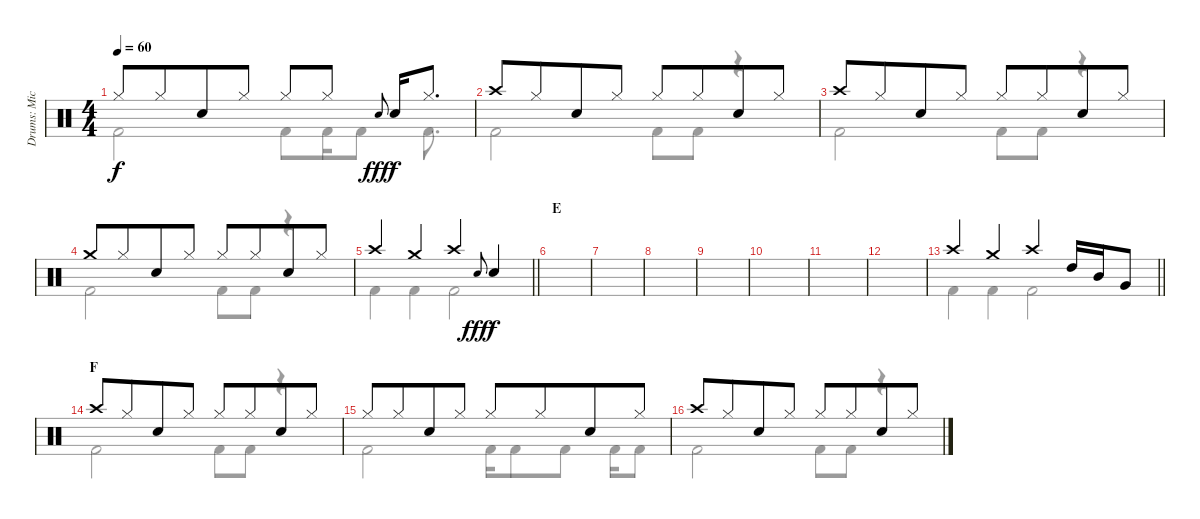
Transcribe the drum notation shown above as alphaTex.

\track ("Drums: Mick" "Drums: Mic") {instrument percussion}
\staff {score}
\articulation defaults
\voice
\ts (4 4)
\tempo 60
\clef neutral
\ks c "Hi-Hat (closed)".8{dy f} "Hi-Hat (closed)".8{beam merge} "Snare (hit) 2".8 "Hi-Hat (closed)".8 "Hi-Hat (closed)".8 "Hi-Hat (closed)".8 "Electric Snare (hit)".8{gr onbeat dy fff beam merge} "Snare (hit) 2".16{dy f} "Hi-Hat (closed)".8{d}
|
"Crash high (hit)".8 "Hi-Hat (closed)".8{beam merge} "Snare (hit) 2".8 "Hi-Hat (closed)".8 "Hi-Hat (closed)".8 "Hi-Hat (closed)".8{beam merge} "Snare (hit) 2".8 "Hi-Hat (closed)".8 |
"Crash high (hit)".8 "Hi-Hat (closed)".8{beam merge} "Snare (hit) 2".8 "Hi-Hat (closed)".8 "Hi-Hat (closed)".8 "Hi-Hat (closed)".8{beam merge} "Snare (hit) 2".8 "Hi-Hat (closed)".8 |
"Crash medium (hit)".8 "Hi-Hat (closed)".8{beam merge} "Snare (hit) 2".8 "Hi-Hat (closed)".8 "Hi-Hat (closed)".8 "Hi-Hat (closed)".8{beam merge} "Snare (hit) 2".8 "Hi-Hat (closed)".8 |
\barLineRight lightlight "Crash high (hit)".4 "Crash medium (hit)".4{beam merge} "Crash high (hit)".4 "Electric Snare (hit)".8{gr onbeat dy fff beam merge} "Snare (hit) 2".4{dy f}
|
\section ("" "E")
|
|
|
|
|
|
|
\barLineRight lightlight "Crash high (hit)".4 "Crash medium (hit)".4 "Crash high (hit)".4 "High Tom (hit)".16 "Mid Tom (hit)".16 "Very Low Tom (hit)".8
|
\section ("" "F")
"Crash high (hit)".8 "Hi-Hat (closed)".8{beam merge} "Snare (hit) 2".8 "Hi-Hat (closed)".8 "Hi-Hat (closed)".8 "Hi-Hat (closed)".8{beam merge} "Snare (hit) 2".8 "Hi-Hat (closed)".8 |
"Hi-Hat (closed)".8 "Hi-Hat (closed)".8{beam merge} "Snare (hit) 2".8 "Hi-Hat (closed)".8 "Hi-Hat (closed)".8 "Hi-Hat (closed)".8{beam merge} "Snare (hit) 2".8 "Hi-Hat (closed)".8 |
"Crash high (hit)".8 "Hi-Hat (closed)".8{beam merge} "Snare (hit) 2".8 "Hi-Hat (closed)".8 "Hi-Hat (closed)".8 "Hi-Hat (closed)".8{beam merge} "Snare (hit) 2".8 "Hi-Hat (closed)".8
\voice
\clef neutral
\ottava regular
\simile none
\ks c "Kick (hit) 2".2{dy f} "Kick (hit) 2".8 "Kick (hit) 2".16 "Kick (hit) 2".8 "Kick (hit) 2".8{d}
|
"Kick (hit) 2".2 "Kick (hit) 2".8 "Kick (hit) 2".8 r.4 |
"Kick (hit) 2".2 "Kick (hit) 2".8 "Kick (hit) 2".8 r.4 |
"Kick (hit) 2".2 "Kick (hit) 2".8 "Kick (hit) 2".8 r.4 |
\barLineRight lightlight "Kick (hit) 2".4 "Kick (hit) 2".4 "Kick (hit) 2".2
|
|
|
|
|
|
|
|
\barLineRight lightlight "Kick (hit) 2".4 "Kick (hit) 2".4 "Kick (hit) 2".2
|
"Kick (hit) 2".2 "Kick (hit) 2".8 "Kick (hit) 2".8 r.4 |
"Kick (hit) 2".2 "Kick (hit) 2".16 "Kick (hit) 2".8 "Kick (hit) 2".8 "Kick (hit) 2".16 "Kick (hit) 2".8 |
"Kick (hit) 2".2 "Kick (hit) 2".8 "Kick (hit) 2".8 r.4
